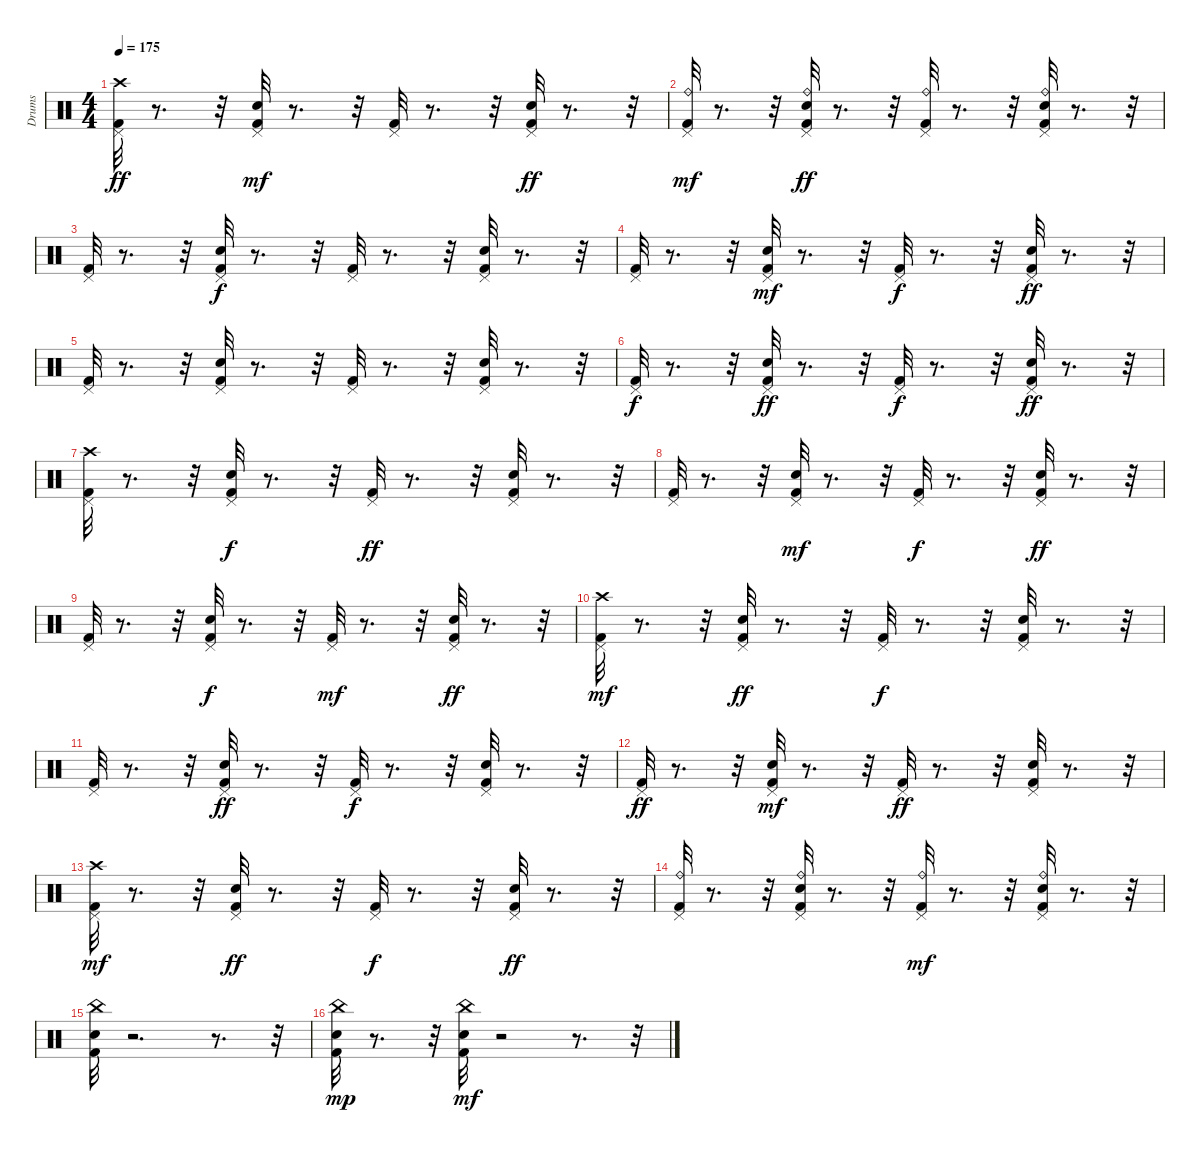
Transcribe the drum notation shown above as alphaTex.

\track ("Drums" "Drums") {instrument percussion}
\staff {score}
\articulation defaults
\ts (4 4)
\tempo 175
\clef neutral
\ks c
("Crash high (hit)" "Pedal Hi-Hat (hit)" "Kick (hit) 2").32{dy ff} r.8{d} r.32 ("Pedal Hi-Hat (hit)" "Snare (hit) 2" "Kick (hit) 2").32{dy mf} r.8{d} r.32 ("Pedal Hi-Hat (hit)" "Kick (hit) 2").32 r.8{d} r.32 ("Snare (hit) 2" "Pedal Hi-Hat (hit)" "Kick (hit) 2").32{dy ff} r.8{d} r.32 |
("Kick (hit) 2" "Pedal Hi-Hat (hit)" "Ride (bell)").32{dy mf} r.8{d} r.32 ("Kick (hit) 2" "Pedal Hi-Hat (hit)" "Snare (hit) 2" "Ride (bell)").32{dy ff} r.8{d} r.32 ("Ride (bell)" "Kick (hit) 2" "Pedal Hi-Hat (hit)").32 r.8{d} r.32 ("Snare (hit) 2" "Pedal Hi-Hat (hit)" "Kick (hit) 2" "Ride (bell)").32 r.8{d} r.32 |
("Pedal Hi-Hat (hit)" "Kick (hit) 2").32 r.8{d} r.32 ("Kick (hit) 2" "Pedal Hi-Hat (hit)" "Snare (hit) 2").32{dy f} r.8{d} r.32 ("Kick (hit) 2" "Pedal Hi-Hat (hit)").32 r.8{d} r.32 ("Pedal Hi-Hat (hit)" "Snare (hit) 2" "Kick (hit) 2").32 r.8{d} r.32 |
("Kick (hit) 2" "Pedal Hi-Hat (hit)").32 r.8{d} r.32 ("Kick (hit) 2" "Pedal Hi-Hat (hit)" "Snare (hit) 2").32{dy mf} r.8{d} r.32 ("Pedal Hi-Hat (hit)" "Kick (hit) 2").32{dy f} r.8{d} r.32 ("Pedal Hi-Hat (hit)" "Snare (hit) 2" "Kick (hit) 2").32{dy ff} r.8{d} r.32 |
("Kick (hit) 2" "Pedal Hi-Hat (hit)").32 r.8{d} r.32 ("Snare (hit) 2" "Kick (hit) 2" "Pedal Hi-Hat (hit)").32 r.8{d} r.32 ("Pedal Hi-Hat (hit)" "Kick (hit) 2").32 r.8{d} r.32 ("Snare (hit) 2" "Kick (hit) 2" "Pedal Hi-Hat (hit)").32 r.8{d} r.32 |
("Kick (hit) 2" "Pedal Hi-Hat (hit)").32{dy f} r.8{d} r.32 ("Pedal Hi-Hat (hit)" "Kick (hit) 2" "Snare (hit) 2").32{dy ff} r.8{d} r.32 ("Pedal Hi-Hat (hit)" "Kick (hit) 2").32{dy f} r.8{d} r.32 ("Kick (hit) 2" "Snare (hit) 2" "Pedal Hi-Hat (hit)").32{dy ff} r.8{d} r.32 |
("Crash high (hit)" "Kick (hit) 2" "Pedal Hi-Hat (hit)").32 r.8{d} r.32 ("Kick (hit) 2" "Pedal Hi-Hat (hit)" "Snare (hit) 2").32{dy f} r.8{d} r.32 ("Pedal Hi-Hat (hit)" "Kick (hit) 2").32{dy ff} r.8{d} r.32 ("Pedal Hi-Hat (hit)" "Snare (hit) 2" "Kick (hit) 2").32 r.8{d} r.32 |
("Kick (hit) 2" "Pedal Hi-Hat (hit)").32 r.8{d} r.32 ("Pedal Hi-Hat (hit)" "Snare (hit) 2" "Kick (hit) 2").32{dy mf} r.8{d} r.32 ("Pedal Hi-Hat (hit)" "Kick (hit) 2").32{dy f} r.8{d} r.32 ("Snare (hit) 2" "Kick (hit) 2" "Pedal Hi-Hat (hit)").32{dy ff} r.8{d} r.32 |
("Pedal Hi-Hat (hit)" "Kick (hit) 2").32 r.8{d} r.32 ("Pedal Hi-Hat (hit)" "Snare (hit) 2" "Kick (hit) 2").32{dy f} r.8{d} r.32 ("Kick (hit) 2" "Pedal Hi-Hat (hit)").32{dy mf} r.8{d} r.32 ("Pedal Hi-Hat (hit)" "Snare (hit) 2" "Kick (hit) 2").32{dy ff} r.8{d} r.32 |
("Crash high (hit)" "Pedal Hi-Hat (hit)" "Kick (hit) 2").32{dy mf} r.8{d} r.32 ("Pedal Hi-Hat (hit)" "Kick (hit) 2" "Snare (hit) 2").32{dy ff} r.8{d} r.32 ("Pedal Hi-Hat (hit)" "Kick (hit) 2").32{dy f} r.8{d} r.32 ("Pedal Hi-Hat (hit)" "Snare (hit) 2" "Kick (hit) 2").32 r.8{d} r.32 |
("Kick (hit) 2" "Pedal Hi-Hat (hit)").32 r.8{d} r.32 ("Pedal Hi-Hat (hit)" "Snare (hit) 2" "Kick (hit) 2").32{dy ff} r.8{d} r.32 ("Kick (hit) 2" "Pedal Hi-Hat (hit)").32{dy f} r.8{d} r.32 ("Pedal Hi-Hat (hit)" "Kick (hit) 2" "Snare (hit) 2").32 r.8{d} r.32 |
("Pedal Hi-Hat (hit)" "Kick (hit) 2").32{dy ff} r.8{d} r.32 ("Kick (hit) 2" "Pedal Hi-Hat (hit)" "Snare (hit) 2").32{dy mf} r.8{d} r.32 ("Pedal Hi-Hat (hit)" "Kick (hit) 2").32{dy ff} r.8{d} r.32 ("Pedal Hi-Hat (hit)" "Kick (hit) 2" "Snare (hit) 2").32 r.8{d} r.32 |
("Pedal Hi-Hat (hit)" "Kick (hit) 2" "Crash high (hit)").32{dy mf} r.8{d} r.32 ("Kick (hit) 2" "Pedal Hi-Hat (hit)" "Snare (hit) 2").32{dy ff} r.8{d} r.32 ("Kick (hit) 2" "Pedal Hi-Hat (hit)").32{dy f} r.8{d} r.32 ("Kick (hit) 2" "Pedal Hi-Hat (hit)" "Snare (hit) 2").32{dy ff} r.8{d} r.32 |
("Kick (hit) 2" "Pedal Hi-Hat (hit)" "Ride (bell)").32 r.8{d} r.32 ("Ride (bell)" "Pedal Hi-Hat (hit)" "Snare (hit) 2" "Kick (hit) 2").32 r.8{d} r.32 ("Ride (bell)" "Kick (hit) 2" "Pedal Hi-Hat (hit)").32{dy mf} r.8{d} r.32 ("Snare (hit) 2" "Pedal Hi-Hat (hit)" "Ride (bell)" "Kick (hit) 2").32 r.8{d} r.32 |
("Snare (hit) 2" "China (hit)" "Kick (hit) 2").32 r.2{d} r.8{d} r.32 |
("Snare (hit) 2" "Kick (hit) 2" "China (hit)").32{dy mp} r.8{d} r.32 ("China (hit)" "Kick (hit) 2" "Snare (hit) 2").32{dy mf} r.2 r.8{d} r.32
